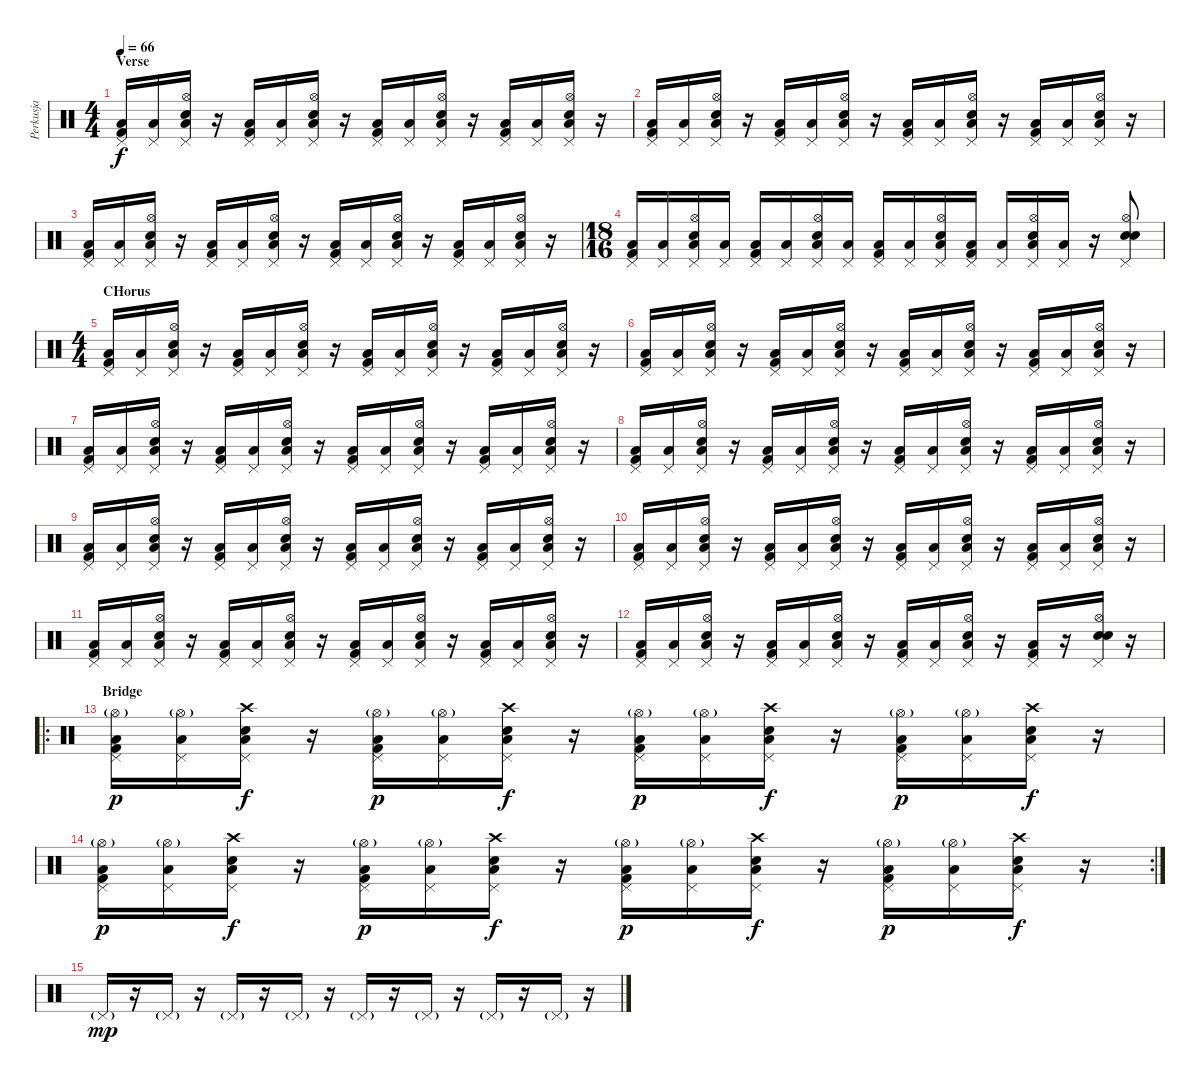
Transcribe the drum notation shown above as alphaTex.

\track ("Perkusja" "Perkusja") {instrument percussion}
\staff {score}
\articulation defaults
\ts (4 4)
\section ("" "Verse")
\tempo 66
\clef neutral
\ks c
("Pedal Hi-Hat (hit)" "Low Floor Tom (hit)" "Kick (hit) 2").16{dy f} ("Pedal Hi-Hat (hit)" "Low Floor Tom (hit)").16 ("Pedal Hi-Hat (hit)" "Low Floor Tom (hit)" "Hi-Hat (open)" "Snare (hit) 2").16 r.16 ("Pedal Hi-Hat (hit)" "Low Floor Tom (hit)" "Kick (hit) 2").16 ("Pedal Hi-Hat (hit)" "Low Floor Tom (hit)").16 ("Pedal Hi-Hat (hit)" "Low Floor Tom (hit)" "Hi-Hat (open)" "Snare (hit) 2").16 r.16 ("Pedal Hi-Hat (hit)" "Low Floor Tom (hit)" "Kick (hit) 2").16 ("Pedal Hi-Hat (hit)" "Low Floor Tom (hit)").16 ("Pedal Hi-Hat (hit)" "Low Floor Tom (hit)" "Hi-Hat (open)" "Snare (hit) 2").16 r.16 ("Pedal Hi-Hat (hit)" "Low Floor Tom (hit)" "Kick (hit) 2").16 ("Pedal Hi-Hat (hit)" "Low Floor Tom (hit)").16 ("Pedal Hi-Hat (hit)" "Low Floor Tom (hit)" "Hi-Hat (open)" "Snare (hit) 2").16 r.16 |
("Pedal Hi-Hat (hit)" "Low Floor Tom (hit)" "Kick (hit) 2").16 ("Pedal Hi-Hat (hit)" "Low Floor Tom (hit)").16 ("Pedal Hi-Hat (hit)" "Low Floor Tom (hit)" "Hi-Hat (open)" "Snare (hit) 2").16 r.16 ("Pedal Hi-Hat (hit)" "Low Floor Tom (hit)" "Kick (hit) 2").16 ("Pedal Hi-Hat (hit)" "Low Floor Tom (hit)").16 ("Pedal Hi-Hat (hit)" "Low Floor Tom (hit)" "Hi-Hat (open)" "Snare (hit) 2").16 r.16 ("Pedal Hi-Hat (hit)" "Low Floor Tom (hit)" "Kick (hit) 2").16 ("Pedal Hi-Hat (hit)" "Low Floor Tom (hit)").16 ("Pedal Hi-Hat (hit)" "Low Floor Tom (hit)" "Hi-Hat (open)" "Snare (hit) 2").16 r.16 ("Pedal Hi-Hat (hit)" "Low Floor Tom (hit)" "Kick (hit) 2").16 ("Pedal Hi-Hat (hit)" "Low Floor Tom (hit)").16 ("Pedal Hi-Hat (hit)" "Low Floor Tom (hit)" "Hi-Hat (open)" "Snare (hit) 2").16 r.16 |
("Pedal Hi-Hat (hit)" "Low Floor Tom (hit)" "Kick (hit) 2").16 ("Pedal Hi-Hat (hit)" "Low Floor Tom (hit)").16 ("Pedal Hi-Hat (hit)" "Low Floor Tom (hit)" "Hi-Hat (open)" "Snare (hit) 2").16 r.16 ("Pedal Hi-Hat (hit)" "Low Floor Tom (hit)" "Kick (hit) 2").16 ("Pedal Hi-Hat (hit)" "Low Floor Tom (hit)").16 ("Pedal Hi-Hat (hit)" "Low Floor Tom (hit)" "Hi-Hat (open)" "Snare (hit) 2").16 r.16 ("Pedal Hi-Hat (hit)" "Low Floor Tom (hit)" "Kick (hit) 2").16 ("Pedal Hi-Hat (hit)" "Low Floor Tom (hit)").16 ("Pedal Hi-Hat (hit)" "Low Floor Tom (hit)" "Hi-Hat (open)" "Snare (hit) 2").16 r.16 ("Pedal Hi-Hat (hit)" "Low Floor Tom (hit)" "Kick (hit) 2").16 ("Pedal Hi-Hat (hit)" "Low Floor Tom (hit)").16 ("Pedal Hi-Hat (hit)" "Low Floor Tom (hit)" "Hi-Hat (open)" "Snare (hit) 2").16 r.16 |
\ts (18 16)
("Pedal Hi-Hat (hit)" "Low Floor Tom (hit)" "Kick (hit) 2").16 ("Pedal Hi-Hat (hit)" "Low Floor Tom (hit)").16 ("Pedal Hi-Hat (hit)" "Low Floor Tom (hit)" "Hi-Hat (open)" "Snare (hit) 2").16 ("Pedal Hi-Hat (hit)" "Low Floor Tom (hit)").16 ("Pedal Hi-Hat (hit)" "Low Floor Tom (hit)" "Kick (hit) 2").16 ("Pedal Hi-Hat (hit)" "Low Floor Tom (hit)").16 ("Pedal Hi-Hat (hit)" "Low Floor Tom (hit)" "Hi-Hat (open)" "Snare (hit) 2").16 ("Pedal Hi-Hat (hit)" "Low Floor Tom (hit)").16 ("Pedal Hi-Hat (hit)" "Low Floor Tom (hit)" "Kick (hit) 2").16 ("Pedal Hi-Hat (hit)" "Low Floor Tom (hit)").16 ("Pedal Hi-Hat (hit)" "Low Floor Tom (hit)" "Hi-Hat (open)" "Snare (hit) 2").16 ("Pedal Hi-Hat (hit)" "Low Floor Tom (hit)" "Kick (hit) 2").16 ("Pedal Hi-Hat (hit)" "Low Floor Tom (hit)").16 ("Pedal Hi-Hat (hit)" "Low Floor Tom (hit)" "Hi-Hat (open)" "Snare (hit) 2").16 ("Pedal Hi-Hat (hit)" "Low Floor Tom (hit)").16 r.16 ("Pedal Hi-Hat (hit)" "Electric Snare (hit)" "Electric Snare (hit)" "Hi-Hat (open)").8 |
\ts (4 4)
\section ("" "CHorus")
("Pedal Hi-Hat (hit)" "Low Floor Tom (hit)" "Kick (hit) 2").16 ("Pedal Hi-Hat (hit)" "Low Floor Tom (hit)").16 ("Pedal Hi-Hat (hit)" "Low Floor Tom (hit)" "Hi-Hat (open)" "Snare (hit) 2").16 r.16 ("Pedal Hi-Hat (hit)" "Low Floor Tom (hit)" "Kick (hit) 2").16 ("Pedal Hi-Hat (hit)" "Low Floor Tom (hit)").16 ("Pedal Hi-Hat (hit)" "Low Floor Tom (hit)" "Hi-Hat (open)" "Snare (hit) 2").16 r.16 ("Pedal Hi-Hat (hit)" "Low Floor Tom (hit)" "Kick (hit) 2").16 ("Pedal Hi-Hat (hit)" "Low Floor Tom (hit)").16 ("Pedal Hi-Hat (hit)" "Low Floor Tom (hit)" "Hi-Hat (open)" "Snare (hit) 2").16 r.16 ("Pedal Hi-Hat (hit)" "Low Floor Tom (hit)" "Kick (hit) 2").16 ("Pedal Hi-Hat (hit)" "Low Floor Tom (hit)").16 ("Pedal Hi-Hat (hit)" "Low Floor Tom (hit)" "Hi-Hat (open)" "Snare (hit) 2").16 r.16 |
("Pedal Hi-Hat (hit)" "Low Floor Tom (hit)" "Kick (hit) 2").16 ("Pedal Hi-Hat (hit)" "Low Floor Tom (hit)").16 ("Pedal Hi-Hat (hit)" "Low Floor Tom (hit)" "Hi-Hat (open)" "Snare (hit) 2").16 r.16 ("Pedal Hi-Hat (hit)" "Low Floor Tom (hit)" "Kick (hit) 2").16 ("Pedal Hi-Hat (hit)" "Low Floor Tom (hit)").16 ("Pedal Hi-Hat (hit)" "Low Floor Tom (hit)" "Hi-Hat (open)" "Snare (hit) 2").16 r.16 ("Pedal Hi-Hat (hit)" "Low Floor Tom (hit)" "Kick (hit) 2").16 ("Pedal Hi-Hat (hit)" "Low Floor Tom (hit)").16 ("Pedal Hi-Hat (hit)" "Low Floor Tom (hit)" "Hi-Hat (open)" "Snare (hit) 2").16 r.16 ("Pedal Hi-Hat (hit)" "Low Floor Tom (hit)" "Kick (hit) 2").16 ("Pedal Hi-Hat (hit)" "Low Floor Tom (hit)").16 ("Pedal Hi-Hat (hit)" "Low Floor Tom (hit)" "Hi-Hat (open)" "Snare (hit) 2").16 r.16 |
("Pedal Hi-Hat (hit)" "Low Floor Tom (hit)" "Kick (hit) 2").16 ("Pedal Hi-Hat (hit)" "Low Floor Tom (hit)").16 ("Pedal Hi-Hat (hit)" "Low Floor Tom (hit)" "Hi-Hat (open)" "Snare (hit) 2").16 r.16 ("Pedal Hi-Hat (hit)" "Low Floor Tom (hit)" "Kick (hit) 2").16 ("Pedal Hi-Hat (hit)" "Low Floor Tom (hit)").16 ("Pedal Hi-Hat (hit)" "Low Floor Tom (hit)" "Hi-Hat (open)" "Snare (hit) 2").16 r.16 ("Pedal Hi-Hat (hit)" "Low Floor Tom (hit)" "Kick (hit) 2").16 ("Pedal Hi-Hat (hit)" "Low Floor Tom (hit)").16 ("Pedal Hi-Hat (hit)" "Low Floor Tom (hit)" "Hi-Hat (open)" "Snare (hit) 2").16 r.16 ("Pedal Hi-Hat (hit)" "Low Floor Tom (hit)" "Kick (hit) 2").16 ("Pedal Hi-Hat (hit)" "Low Floor Tom (hit)").16 ("Pedal Hi-Hat (hit)" "Low Floor Tom (hit)" "Hi-Hat (open)" "Snare (hit) 2").16 r.16 |
("Pedal Hi-Hat (hit)" "Low Floor Tom (hit)" "Kick (hit) 2").16 ("Pedal Hi-Hat (hit)" "Low Floor Tom (hit)").16 ("Pedal Hi-Hat (hit)" "Low Floor Tom (hit)" "Hi-Hat (open)" "Snare (hit) 2").16 r.16 ("Pedal Hi-Hat (hit)" "Low Floor Tom (hit)" "Kick (hit) 2").16 ("Pedal Hi-Hat (hit)" "Low Floor Tom (hit)").16 ("Pedal Hi-Hat (hit)" "Low Floor Tom (hit)" "Hi-Hat (open)" "Snare (hit) 2").16 r.16 ("Pedal Hi-Hat (hit)" "Low Floor Tom (hit)" "Kick (hit) 2").16 ("Pedal Hi-Hat (hit)" "Low Floor Tom (hit)").16 ("Pedal Hi-Hat (hit)" "Low Floor Tom (hit)" "Hi-Hat (open)" "Snare (hit) 2").16 r.16 ("Pedal Hi-Hat (hit)" "Low Floor Tom (hit)" "Kick (hit) 2").16 ("Pedal Hi-Hat (hit)" "Low Floor Tom (hit)").16 ("Pedal Hi-Hat (hit)" "Low Floor Tom (hit)" "Hi-Hat (open)" "Snare (hit) 2").16 r.16 |
("Pedal Hi-Hat (hit)" "Low Floor Tom (hit)" "Kick (hit) 2").16 ("Pedal Hi-Hat (hit)" "Low Floor Tom (hit)").16 ("Pedal Hi-Hat (hit)" "Low Floor Tom (hit)" "Hi-Hat (open)" "Snare (hit) 2").16 r.16 ("Pedal Hi-Hat (hit)" "Low Floor Tom (hit)" "Kick (hit) 2").16 ("Pedal Hi-Hat (hit)" "Low Floor Tom (hit)").16 ("Pedal Hi-Hat (hit)" "Low Floor Tom (hit)" "Hi-Hat (open)" "Snare (hit) 2").16 r.16 ("Pedal Hi-Hat (hit)" "Low Floor Tom (hit)" "Kick (hit) 2").16 ("Pedal Hi-Hat (hit)" "Low Floor Tom (hit)").16 ("Pedal Hi-Hat (hit)" "Low Floor Tom (hit)" "Hi-Hat (open)" "Snare (hit) 2").16 r.16 ("Pedal Hi-Hat (hit)" "Low Floor Tom (hit)" "Kick (hit) 2").16 ("Pedal Hi-Hat (hit)" "Low Floor Tom (hit)").16 ("Pedal Hi-Hat (hit)" "Low Floor Tom (hit)" "Hi-Hat (open)" "Snare (hit) 2").16 r.16 |
("Pedal Hi-Hat (hit)" "Low Floor Tom (hit)" "Kick (hit) 2").16 ("Pedal Hi-Hat (hit)" "Low Floor Tom (hit)").16 ("Pedal Hi-Hat (hit)" "Low Floor Tom (hit)" "Hi-Hat (open)" "Snare (hit) 2").16 r.16 ("Pedal Hi-Hat (hit)" "Low Floor Tom (hit)" "Kick (hit) 2").16 ("Pedal Hi-Hat (hit)" "Low Floor Tom (hit)").16 ("Pedal Hi-Hat (hit)" "Low Floor Tom (hit)" "Hi-Hat (open)" "Snare (hit) 2").16 r.16 ("Pedal Hi-Hat (hit)" "Low Floor Tom (hit)" "Kick (hit) 2").16 ("Pedal Hi-Hat (hit)" "Low Floor Tom (hit)").16 ("Pedal Hi-Hat (hit)" "Low Floor Tom (hit)" "Hi-Hat (open)" "Snare (hit) 2").16 r.16 ("Pedal Hi-Hat (hit)" "Low Floor Tom (hit)" "Kick (hit) 2").16 ("Pedal Hi-Hat (hit)" "Low Floor Tom (hit)").16 ("Pedal Hi-Hat (hit)" "Low Floor Tom (hit)" "Hi-Hat (open)" "Snare (hit) 2").16 r.16 |
("Pedal Hi-Hat (hit)" "Low Floor Tom (hit)" "Kick (hit) 2").16 ("Pedal Hi-Hat (hit)" "Low Floor Tom (hit)").16 ("Pedal Hi-Hat (hit)" "Low Floor Tom (hit)" "Hi-Hat (open)" "Snare (hit) 2").16 r.16 ("Pedal Hi-Hat (hit)" "Low Floor Tom (hit)" "Kick (hit) 2").16 ("Pedal Hi-Hat (hit)" "Low Floor Tom (hit)").16 ("Pedal Hi-Hat (hit)" "Low Floor Tom (hit)" "Hi-Hat (open)" "Snare (hit) 2").16 r.16 ("Pedal Hi-Hat (hit)" "Low Floor Tom (hit)" "Kick (hit) 2").16 ("Pedal Hi-Hat (hit)" "Low Floor Tom (hit)").16 ("Pedal Hi-Hat (hit)" "Low Floor Tom (hit)" "Hi-Hat (open)" "Snare (hit) 2").16 r.16 ("Pedal Hi-Hat (hit)" "Low Floor Tom (hit)" "Kick (hit) 2").16 ("Pedal Hi-Hat (hit)" "Low Floor Tom (hit)").16 ("Pedal Hi-Hat (hit)" "Low Floor Tom (hit)" "Hi-Hat (open)" "Snare (hit) 2").16 r.16 |
("Pedal Hi-Hat (hit)" "Low Floor Tom (hit)" "Kick (hit) 2").16 ("Pedal Hi-Hat (hit)" "Low Floor Tom (hit)").16 ("Pedal Hi-Hat (hit)" "Low Floor Tom (hit)" "Hi-Hat (open)" "Snare (hit) 2").16 r.16 ("Pedal Hi-Hat (hit)" "Low Floor Tom (hit)" "Kick (hit) 2").16 ("Pedal Hi-Hat (hit)" "Low Floor Tom (hit)").16 ("Pedal Hi-Hat (hit)" "Low Floor Tom (hit)" "Hi-Hat (open)" "Snare (hit) 2").16 r.16 ("Pedal Hi-Hat (hit)" "Low Floor Tom (hit)" "Kick (hit) 2").16 ("Pedal Hi-Hat (hit)" "Low Floor Tom (hit)").16 ("Pedal Hi-Hat (hit)" "Low Floor Tom (hit)" "Hi-Hat (open)" "Snare (hit) 2").16 r.16 ("Pedal Hi-Hat (hit)" "Low Floor Tom (hit)" "Kick (hit) 2").16 r.16 ("Pedal Hi-Hat (hit)" "Electric Snare (hit)" "Electric Snare (hit)" "Hi-Hat (open)").16 r.16 |
\ro
\section ("" "Bridge")
("Pedal Hi-Hat (hit)" "Low Floor Tom (hit)" "Hi-Hat (open)"{g} "Kick (hit) 2").16{dy p} ("Pedal Hi-Hat (hit)" "Low Floor Tom (hit)" "Hi-Hat (open)"{g}).16 ("Pedal Hi-Hat (hit)" "Low Floor Tom (hit)" "Crash high (hit)" "Snare (hit) 2").16{dy f} r.16 ("Pedal Hi-Hat (hit)" "Low Floor Tom (hit)" "Hi-Hat (open)"{g} "Kick (hit) 2").16{dy p} ("Pedal Hi-Hat (hit)" "Low Floor Tom (hit)" "Hi-Hat (open)"{g}).16 ("Pedal Hi-Hat (hit)" "Low Floor Tom (hit)" "Crash high (hit)" "Snare (hit) 2").16{dy f} r.16 ("Pedal Hi-Hat (hit)" "Low Floor Tom (hit)" "Hi-Hat (open)"{g} "Kick (hit) 2").16{dy p} ("Pedal Hi-Hat (hit)" "Low Floor Tom (hit)" "Hi-Hat (open)"{g}).16 ("Pedal Hi-Hat (hit)" "Low Floor Tom (hit)" "Crash high (hit)" "Snare (hit) 2").16{dy f} r.16 ("Pedal Hi-Hat (hit)" "Low Floor Tom (hit)" "Hi-Hat (open)"{g} "Kick (hit) 2").16{dy p} ("Pedal Hi-Hat (hit)" "Low Floor Tom (hit)" "Hi-Hat (open)"{g}).16 ("Pedal Hi-Hat (hit)" "Low Floor Tom (hit)" "Crash high (hit)" "Snare (hit) 2").16{dy f} r.16 |
\rc 2
("Pedal Hi-Hat (hit)" "Low Floor Tom (hit)" "Hi-Hat (open)"{g} "Kick (hit) 2").16{dy p} ("Pedal Hi-Hat (hit)" "Low Floor Tom (hit)" "Hi-Hat (open)"{g}).16 ("Pedal Hi-Hat (hit)" "Low Floor Tom (hit)" "Crash high (hit)" "Snare (hit) 2").16{dy f} r.16 ("Pedal Hi-Hat (hit)" "Low Floor Tom (hit)" "Hi-Hat (open)"{g} "Kick (hit) 2").16{dy p} ("Pedal Hi-Hat (hit)" "Low Floor Tom (hit)" "Hi-Hat (open)"{g}).16 ("Pedal Hi-Hat (hit)" "Low Floor Tom (hit)" "Crash high (hit)" "Snare (hit) 2").16{dy f} r.16 ("Pedal Hi-Hat (hit)" "Low Floor Tom (hit)" "Hi-Hat (open)"{g} "Kick (hit) 2").16{dy p} ("Pedal Hi-Hat (hit)" "Low Floor Tom (hit)" "Hi-Hat (open)"{g}).16 ("Pedal Hi-Hat (hit)" "Low Floor Tom (hit)" "Crash high (hit)" "Snare (hit) 2").16{dy f} r.16 ("Pedal Hi-Hat (hit)" "Low Floor Tom (hit)" "Hi-Hat (open)"{g} "Kick (hit) 2").16{dy p} ("Pedal Hi-Hat (hit)" "Low Floor Tom (hit)" "Hi-Hat (open)"{g}).16 ("Pedal Hi-Hat (hit)" "Low Floor Tom (hit)" "Crash high (hit)" "Snare (hit) 2").16{dy f} r.16 |
"Pedal Hi-Hat (hit)"{g}.16{dy mp} r.16 "Pedal Hi-Hat (hit)"{g}.16 r.16 "Pedal Hi-Hat (hit)"{g}.16 r.16 "Pedal Hi-Hat (hit)"{g}.16 r.16 "Pedal Hi-Hat (hit)"{g}.16 r.16 "Pedal Hi-Hat (hit)"{g}.16 r.16 "Pedal Hi-Hat (hit)"{g}.16 r.16 "Pedal Hi-Hat (hit)"{g}.16 r.16
